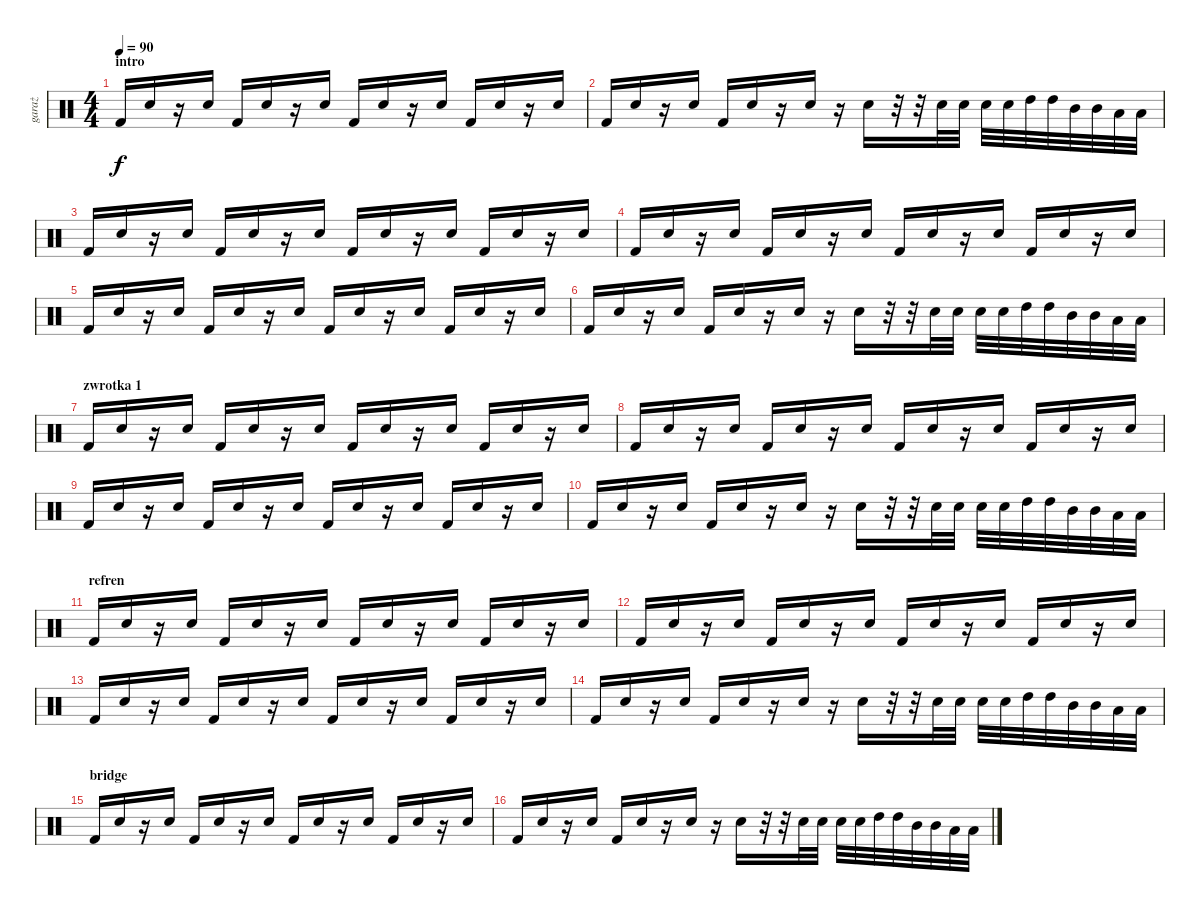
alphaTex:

\track ("garaż" "garaż") {instrument percussion}
\staff {score}
\articulation defaults
\ts (4 4)
\section ("" "intro")
\tempo 90
\clef neutral
\ks c "Kick (hit) 2".16{dy f} "Snare (hit) 2".16
r.16 "Snare (hit) 2".16 "Kick (hit) 2".16 "Snare (hit) 2".16 r.16 "Snare (hit) 2".16 "Kick (hit) 2".16 "Snare (hit) 2".16 r.16 "Snare (hit) 2".16 "Kick (hit) 2".16 "Snare (hit) 2".16 r.16 "Snare (hit) 2".16 |
"Kick (hit) 2".16 "Snare (hit) 2".16 r.16 "Snare (hit) 2".16 "Kick (hit) 2".16 "Snare (hit) 2".16 r.16 "Snare (hit) 2".16 r.16 "Snare (hit) 2".16 r.32 r.32 "Snare (hit) 2".32 "Snare (hit) 2".32 "Snare (hit) 2".32 "Snare (hit) 2".32 "High Tom (hit)".32 "High Tom (hit)".32 "Mid Tom (hit)".32 "Mid Tom (hit)".32 "Low Tom (hit)".32 "Low Tom (hit)".32 |
"Kick (hit) 2".16 "Snare (hit) 2".16 r.16 "Snare (hit) 2".16 "Kick (hit) 2".16 "Snare (hit) 2".16 r.16 "Snare (hit) 2".16 "Kick (hit) 2".16 "Snare (hit) 2".16 r.16 "Snare (hit) 2".16 "Kick (hit) 2".16 "Snare (hit) 2".16 r.16 "Snare (hit) 2".16 |
"Kick (hit) 2".16 "Snare (hit) 2".16 r.16 "Snare (hit) 2".16 "Kick (hit) 2".16 "Snare (hit) 2".16 r.16 "Snare (hit) 2".16 "Kick (hit) 2".16 "Snare (hit) 2".16 r.16 "Snare (hit) 2".16 "Kick (hit) 2".16 "Snare (hit) 2".16 r.16 "Snare (hit) 2".16 |
"Kick (hit) 2".16 "Snare (hit) 2".16 r.16 "Snare (hit) 2".16 "Kick (hit) 2".16 "Snare (hit) 2".16 r.16 "Snare (hit) 2".16 "Kick (hit) 2".16 "Snare (hit) 2".16 r.16 "Snare (hit) 2".16 "Kick (hit) 2".16 "Snare (hit) 2".16 r.16 "Snare (hit) 2".16 |
"Kick (hit) 2".16 "Snare (hit) 2".16 r.16 "Snare (hit) 2".16 "Kick (hit) 2".16 "Snare (hit) 2".16 r.16 "Snare (hit) 2".16 r.16 "Snare (hit) 2".16 r.32 r.32 "Snare (hit) 2".32 "Snare (hit) 2".32 "Snare (hit) 2".32 "Snare (hit) 2".32 "High Tom (hit)".32 "High Tom (hit)".32 "Mid Tom (hit)".32 "Mid Tom (hit)".32 "Low Tom (hit)".32 "Low Tom (hit)".32 |
\section ("" "zwrotka 1")
"Kick (hit) 2".16 "Snare (hit) 2".16 r.16 "Snare (hit) 2".16 "Kick (hit) 2".16 "Snare (hit) 2".16 r.16 "Snare (hit) 2".16 "Kick (hit) 2".16 "Snare (hit) 2".16 r.16 "Snare (hit) 2".16 "Kick (hit) 2".16 "Snare (hit) 2".16 r.16 "Snare (hit) 2".16 |
"Kick (hit) 2".16 "Snare (hit) 2".16 r.16 "Snare (hit) 2".16 "Kick (hit) 2".16 "Snare (hit) 2".16 r.16 "Snare (hit) 2".16 "Kick (hit) 2".16 "Snare (hit) 2".16 r.16 "Snare (hit) 2".16 "Kick (hit) 2".16 "Snare (hit) 2".16 r.16 "Snare (hit) 2".16 |
"Kick (hit) 2".16 "Snare (hit) 2".16 r.16 "Snare (hit) 2".16 "Kick (hit) 2".16 "Snare (hit) 2".16 r.16 "Snare (hit) 2".16 "Kick (hit) 2".16 "Snare (hit) 2".16 r.16 "Snare (hit) 2".16 "Kick (hit) 2".16 "Snare (hit) 2".16 r.16 "Snare (hit) 2".16 |
"Kick (hit) 2".16 "Snare (hit) 2".16 r.16 "Snare (hit) 2".16 "Kick (hit) 2".16 "Snare (hit) 2".16 r.16 "Snare (hit) 2".16 r.16 "Snare (hit) 2".16 r.32 r.32 "Snare (hit) 2".32 "Snare (hit) 2".32 "Snare (hit) 2".32 "Snare (hit) 2".32 "High Tom (hit)".32 "High Tom (hit)".32 "Mid Tom (hit)".32 "Mid Tom (hit)".32 "Low Tom (hit)".32 "Low Tom (hit)".32 |
\section ("" "refren")
"Kick (hit) 2".16 "Snare (hit) 2".16 r.16 "Snare (hit) 2".16 "Kick (hit) 2".16 "Snare (hit) 2".16 r.16 "Snare (hit) 2".16 "Kick (hit) 2".16 "Snare (hit) 2".16 r.16 "Snare (hit) 2".16 "Kick (hit) 2".16 "Snare (hit) 2".16 r.16 "Snare (hit) 2".16 |
"Kick (hit) 2".16 "Snare (hit) 2".16 r.16 "Snare (hit) 2".16 "Kick (hit) 2".16 "Snare (hit) 2".16 r.16 "Snare (hit) 2".16 "Kick (hit) 2".16 "Snare (hit) 2".16 r.16 "Snare (hit) 2".16 "Kick (hit) 2".16 "Snare (hit) 2".16 r.16 "Snare (hit) 2".16 |
"Kick (hit) 2".16 "Snare (hit) 2".16 r.16 "Snare (hit) 2".16 "Kick (hit) 2".16 "Snare (hit) 2".16 r.16 "Snare (hit) 2".16 "Kick (hit) 2".16 "Snare (hit) 2".16 r.16 "Snare (hit) 2".16 "Kick (hit) 2".16 "Snare (hit) 2".16 r.16 "Snare (hit) 2".16 |
"Kick (hit) 2".16 "Snare (hit) 2".16 r.16 "Snare (hit) 2".16 "Kick (hit) 2".16 "Snare (hit) 2".16 r.16 "Snare (hit) 2".16 r.16 "Snare (hit) 2".16 r.32 r.32 "Snare (hit) 2".32 "Snare (hit) 2".32 "Snare (hit) 2".32 "Snare (hit) 2".32 "High Tom (hit)".32 "High Tom (hit)".32 "Mid Tom (hit)".32 "Mid Tom (hit)".32 "Low Tom (hit)".32 "Low Tom (hit)".32 |
\section ("" "bridge")
"Kick (hit) 2".16 "Snare (hit) 2".16 r.16 "Snare (hit) 2".16 "Kick (hit) 2".16 "Snare (hit) 2".16 r.16 "Snare (hit) 2".16 "Kick (hit) 2".16 "Snare (hit) 2".16 r.16 "Snare (hit) 2".16 "Kick (hit) 2".16 "Snare (hit) 2".16 r.16 "Snare (hit) 2".16 |
"Kick (hit) 2".16 "Snare (hit) 2".16 r.16 "Snare (hit) 2".16 "Kick (hit) 2".16 "Snare (hit) 2".16 r.16 "Snare (hit) 2".16 r.16 "Snare (hit) 2".16 r.32 r.32 "Snare (hit) 2".32 "Snare (hit) 2".32 "Snare (hit) 2".32 "Snare (hit) 2".32 "High Tom (hit)".32 "High Tom (hit)".32 "Mid Tom (hit)".32 "Mid Tom (hit)".32 "Low Tom (hit)".32 "Low Tom (hit)".32
